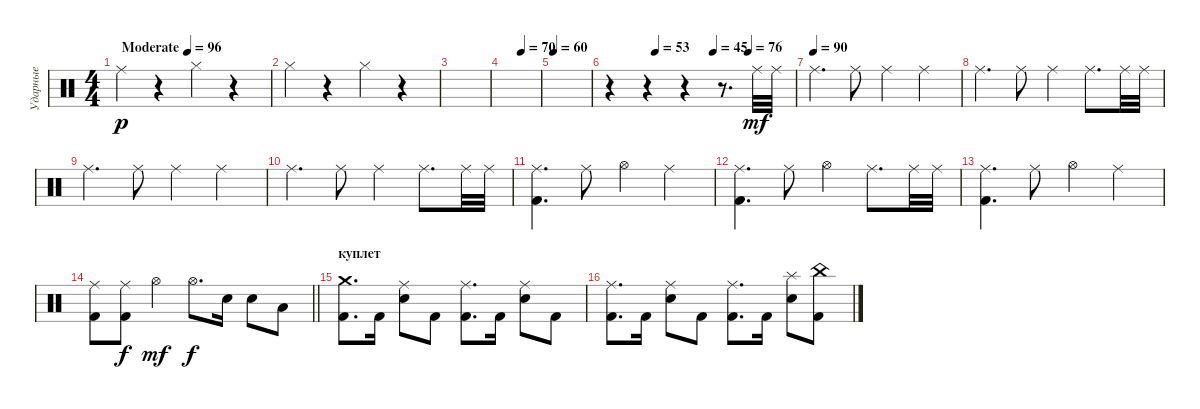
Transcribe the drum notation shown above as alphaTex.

\track ("Ударные" "Ударные") {instrument percussion}
\staff {score}
\articulation defaults
\ts (4 4)
\tempo (96 "Moderate")
\tempo 80
\tempo (96 "Moderate")
\clef neutral
\ks c "Ride (middle)".4{dy p}
r.4 "Hi-Hat (closed)".4 r.4 |
"Hi-Hat (closed)".4 r.4 "Hi-Hat (closed)".4 r.4 |
|
\tempo (70 0.5)
|
\tempo 60
|
\tempo (53 0.25)
\tempo (45 0.5625)
\tempo (76 0.75)
r.4 r.4 r.4 r.8{d} "Ride (middle)".32{dy mf} "Ride (middle)".32 |
\tempo (90)
"Ride (middle)".4{d} "Ride (middle)".8 "Ride (middle)".4 "Ride (middle)".4 |
"Ride (middle)".4{d} "Ride (middle)".8 "Ride (middle)".4 "Ride (middle)".8{d} "Ride (middle)".32 "Ride (middle)".32 |
"Ride (middle)".4{d} "Ride (middle)".8 "Ride (middle)".4 "Ride (middle)".4 |
"Ride (middle)".4{d} "Ride (middle)".8 "Ride (middle)".4 "Ride (middle)".8{d} "Ride (middle)".32 "Ride (middle)".32 |
("Ride (middle)" "Kick (hit) 2").4{d} "Ride (middle)".8 "Hi-Hat (open)".4 "Ride (middle)".4 |
("Ride (middle)" "Kick (hit) 2").4{d} "Ride (middle)".8 "Hi-Hat (open)".4 "Ride (middle)".8{d} "Ride (middle)".32 "Ride (middle)".32 |
("Ride (middle)" "Kick (hit) 2").4{d} "Ride (middle)".8 "Hi-Hat (open)".4 "Ride (middle)".4 |
\barLineRight lightlight
("Ride (middle)" "Kick (hit) 2").8 ("Ride (middle)" "Kick (hit) 2").8{dy f} "Hi-Hat (open)".4{dy mf} "Hi-Hat (open)".8{d dy f} "Electric Snare (hit)".16 "Electric Snare (hit)".8 "Low Tom (hit)".8 |
\section ("" "куплет")
("Crash medium (hit)" "Kick (hit) 2").8{d} "Kick (hit) 2".16 ("Ride (middle)" "Snare (hit) 2").8 "Kick (hit) 2".8 ("Ride (middle)" "Kick (hit) 2").8{d} "Kick (hit) 2".16 ("Ride (middle)" "Snare (hit) 2").8 "Kick (hit) 2".8 |
("Ride (middle)" "Kick (hit) 2").8{d} "Kick (hit) 2".16 ("Ride (middle)" "Snare (hit) 2").8 "Kick (hit) 2".8 ("Ride (middle)" "Kick (hit) 2").8{d} "Kick (hit) 2".16 ("Splash (hit)" "Snare (hit) 2").8 ("China (hit)" "Kick (hit) 2").8
